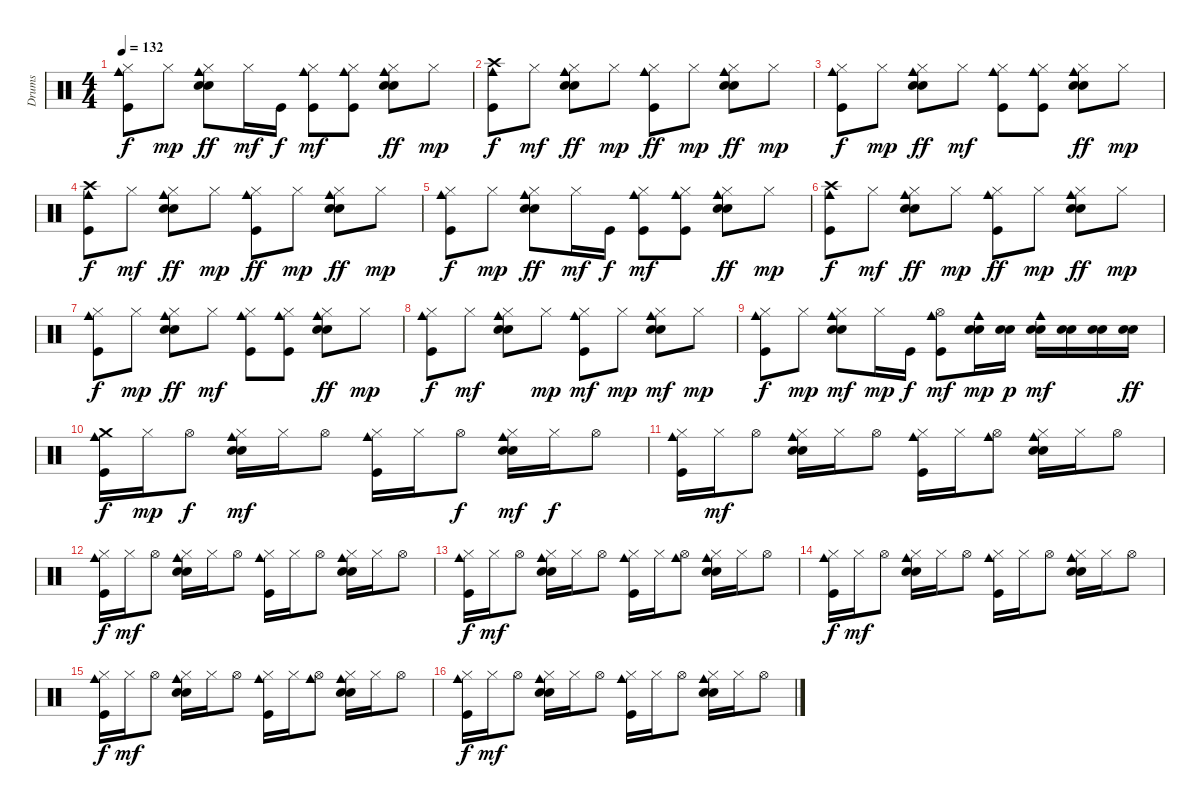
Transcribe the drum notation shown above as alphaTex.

\track ("Drums" "Drums") {instrument percussion}
\staff {score}
\articulation defaults
\ts (4 4)
\tempo 132
\clef neutral
\ks c
("Hi-Hat (closed)" "Kick (hit)" "Cowbell medium (hit)").8{dy f} "Hi-Hat (closed)".8{dy mp} ("Hi-Hat (closed)" "Electric Snare (hit)" "Snare (hit) 2" "Cowbell medium (hit)").8{dy ff} "Hi-Hat (closed)".16{dy mf} "Kick (hit)".16{dy f} ("Hi-Hat (closed)" "Kick (hit)" "Cowbell medium (hit)").8{dy mf} ("Hi-Hat (closed)" "Kick (hit)" "Cowbell medium (hit)").8 ("Hi-Hat (closed)" "Electric Snare (hit)" "Snare (hit) 2" "Cowbell medium (hit)").8{dy ff} "Hi-Hat (closed)".8{dy mp} |
("Kick (hit)" "Cowbell medium (hit)" "Crash high (hit)").8{dy f} "Hi-Hat (closed)".8{dy mf} ("Hi-Hat (closed)" "Electric Snare (hit)" "Snare (hit) 2" "Cowbell medium (hit)").8{dy ff} "Hi-Hat (closed)".8{dy mp} ("Hi-Hat (closed)" "Kick (hit)" "Cowbell medium (hit)").8{dy ff} "Hi-Hat (closed)".8{dy mp} ("Hi-Hat (closed)" "Electric Snare (hit)" "Snare (hit) 2" "Cowbell medium (hit)").8{dy ff} "Hi-Hat (closed)".8{dy mp} |
("Hi-Hat (closed)" "Kick (hit)" "Cowbell medium (hit)").8{dy f} "Hi-Hat (closed)".8{dy mp} ("Hi-Hat (closed)" "Electric Snare (hit)" "Snare (hit) 2" "Cowbell medium (hit)").8{dy ff} "Hi-Hat (closed)".8{dy mf} ("Hi-Hat (closed)" "Kick (hit)" "Cowbell medium (hit)").8 ("Hi-Hat (closed)" "Kick (hit)" "Cowbell medium (hit)").8 ("Hi-Hat (closed)" "Electric Snare (hit)" "Snare (hit) 2" "Cowbell medium (hit)").8{dy ff} "Hi-Hat (closed)".8{dy mp} |
("Kick (hit)" "Cowbell medium (hit)" "Crash high (hit)").8{dy f} "Hi-Hat (closed)".8{dy mf} ("Hi-Hat (closed)" "Electric Snare (hit)" "Snare (hit) 2" "Cowbell medium (hit)").8{dy ff} "Hi-Hat (closed)".8{dy mp} ("Hi-Hat (closed)" "Kick (hit)" "Cowbell medium (hit)").8{dy ff} "Hi-Hat (closed)".8{dy mp} ("Hi-Hat (closed)" "Electric Snare (hit)" "Snare (hit) 2" "Cowbell medium (hit)").8{dy ff} "Hi-Hat (closed)".8{dy mp} |
("Hi-Hat (closed)" "Kick (hit)" "Cowbell medium (hit)").8{dy f} "Hi-Hat (closed)".8{dy mp} ("Hi-Hat (closed)" "Electric Snare (hit)" "Snare (hit) 2" "Cowbell medium (hit)").8{dy ff} "Hi-Hat (closed)".16{dy mf} "Kick (hit)".16{dy f} ("Hi-Hat (closed)" "Kick (hit)" "Cowbell medium (hit)").8{dy mf} ("Hi-Hat (closed)" "Kick (hit)" "Cowbell medium (hit)").8 ("Hi-Hat (closed)" "Electric Snare (hit)" "Snare (hit) 2" "Cowbell medium (hit)").8{dy ff} "Hi-Hat (closed)".8{dy mp} |
("Kick (hit)" "Cowbell medium (hit)" "Crash high (hit)").8{dy f} "Hi-Hat (closed)".8{dy mf} ("Hi-Hat (closed)" "Electric Snare (hit)" "Snare (hit) 2" "Cowbell medium (hit)").8{dy ff} "Hi-Hat (closed)".8{dy mp} ("Hi-Hat (closed)" "Kick (hit)" "Cowbell medium (hit)").8{dy ff} "Hi-Hat (closed)".8{dy mp} ("Hi-Hat (closed)" "Electric Snare (hit)" "Snare (hit) 2" "Cowbell medium (hit)").8{dy ff} "Hi-Hat (closed)".8{dy mp} |
("Hi-Hat (closed)" "Kick (hit)" "Cowbell medium (hit)").8{dy f} "Hi-Hat (closed)".8{dy mp} ("Hi-Hat (closed)" "Electric Snare (hit)" "Snare (hit) 2" "Cowbell medium (hit)").8{dy ff} "Hi-Hat (closed)".8{dy mf} ("Hi-Hat (closed)" "Kick (hit)" "Cowbell medium (hit)").8 ("Hi-Hat (closed)" "Kick (hit)" "Cowbell medium (hit)").8 ("Hi-Hat (closed)" "Electric Snare (hit)" "Snare (hit) 2" "Cowbell medium (hit)").8{dy ff} "Hi-Hat (closed)".8{dy mp} |
("Hi-Hat (closed)" "Kick (hit)" "Cowbell medium (hit)").8{dy f} "Hi-Hat (closed)".8{dy mf} ("Hi-Hat (closed)" "Electric Snare (hit)" "Snare (hit) 2" "Cowbell medium (hit)").8 "Hi-Hat (closed)".8{dy mp} ("Hi-Hat (closed)" "Kick (hit)" "Cowbell medium (hit)").8{dy mf} "Hi-Hat (closed)".8{dy mp} ("Hi-Hat (closed)" "Electric Snare (hit)" "Snare (hit) 2" "Cowbell medium (hit)").8{dy mf} "Hi-Hat (closed)".8{dy mp} |
("Hi-Hat (closed)" "Kick (hit)" "Cowbell medium (hit)").8{dy f} "Hi-Hat (closed)".8{dy mp} ("Hi-Hat (closed)" "Electric Snare (hit)" "Snare (hit) 2" "Cowbell medium (hit)").8{dy mf} "Hi-Hat (closed)".16{dy mp} "Kick (hit)".16{dy f} ("Hi-Hat (open)" "Kick (hit)" "Cowbell medium (hit)").8{dy mf} ("Electric Snare (hit)" "Snare (hit) 2" "Cowbell medium (hit)").16{dy mp} ("Electric Snare (hit)" "Snare (hit) 2").16{dy p} ("Electric Snare (hit)" "Snare (hit) 2" "Cowbell medium (hit)").16{dy mf} ("Electric Snare (hit)" "Snare (hit) 2").16 ("Electric Snare (hit)" "Snare (hit) 2").16 ("Electric Snare (hit)" "Snare (hit) 2").16{dy ff} |
("Kick (hit)" "Cowbell medium (hit)" "Crash medium (hit)").16{dy f} "Hi-Hat (closed)".16{dy mp} "Hi-Hat (open)".8{dy f} ("Hi-Hat (closed)" "Electric Snare (hit)" "Snare (hit) 2" "Cowbell medium (hit)").16{dy mf} "Hi-Hat (closed)".16 "Hi-Hat (open)".8 ("Hi-Hat (closed)" "Kick (hit)" "Cowbell medium (hit)").16 "Hi-Hat (closed)".16 "Hi-Hat (open)".8{dy f} ("Hi-Hat (closed)" "Electric Snare (hit)" "Snare (hit) 2" "Cowbell medium (hit)").16{dy mf} "Hi-Hat (closed)".16{dy f} "Hi-Hat (open)".8 |
("Hi-Hat (closed)" "Kick (hit)" "Cowbell medium (hit)").16 "Hi-Hat (closed)".16{dy mf} "Hi-Hat (open)".8 ("Hi-Hat (closed)" "Electric Snare (hit)" "Snare (hit) 2" "Cowbell medium (hit)").16 "Hi-Hat (closed)".16 "Hi-Hat (open)".8 ("Hi-Hat (closed)" "Kick (hit)" "Cowbell medium (hit)").16 "Hi-Hat (closed)".16 ("Hi-Hat (open)" "Cowbell medium (hit)").8 ("Hi-Hat (closed)" "Electric Snare (hit)" "Snare (hit) 2" "Cowbell medium (hit)").16 "Hi-Hat (closed)".16 "Hi-Hat (open)".8 |
("Hi-Hat (closed)" "Kick (hit)" "Cowbell medium (hit)").16{dy f} "Hi-Hat (closed)".16{dy mf} "Hi-Hat (open)".8 ("Hi-Hat (closed)" "Electric Snare (hit)" "Snare (hit) 2" "Cowbell medium (hit)").16 "Hi-Hat (closed)".16 "Hi-Hat (open)".8 ("Hi-Hat (closed)" "Kick (hit)" "Cowbell medium (hit)").16 "Hi-Hat (closed)".16 "Hi-Hat (open)".8 ("Hi-Hat (closed)" "Electric Snare (hit)" "Snare (hit) 2" "Cowbell medium (hit)").16 "Hi-Hat (closed)".16 "Hi-Hat (open)".8 |
("Hi-Hat (closed)" "Kick (hit)" "Cowbell medium (hit)").16{dy f} "Hi-Hat (closed)".16{dy mf} "Hi-Hat (open)".8 ("Hi-Hat (closed)" "Electric Snare (hit)" "Snare (hit) 2" "Cowbell medium (hit)").16 "Hi-Hat (closed)".16 "Hi-Hat (open)".8 ("Hi-Hat (closed)" "Kick (hit)" "Cowbell medium (hit)").16 "Hi-Hat (closed)".16 ("Hi-Hat (open)" "Cowbell medium (hit)").8 ("Hi-Hat (closed)" "Electric Snare (hit)" "Snare (hit) 2" "Cowbell medium (hit)").16 "Hi-Hat (closed)".16 "Hi-Hat (open)".8 |
("Hi-Hat (closed)" "Kick (hit)" "Cowbell medium (hit)").16{dy f} "Hi-Hat (closed)".16{dy mf} "Hi-Hat (open)".8 ("Hi-Hat (closed)" "Electric Snare (hit)" "Snare (hit) 2" "Cowbell medium (hit)").16 "Hi-Hat (closed)".16 "Hi-Hat (open)".8 ("Hi-Hat (closed)" "Kick (hit)" "Cowbell medium (hit)").16 "Hi-Hat (closed)".16 "Hi-Hat (open)".8 ("Hi-Hat (closed)" "Electric Snare (hit)" "Snare (hit) 2" "Cowbell medium (hit)").16 "Hi-Hat (closed)".16 "Hi-Hat (open)".8 |
("Hi-Hat (closed)" "Kick (hit)" "Cowbell medium (hit)").16{dy f} "Hi-Hat (closed)".16{dy mf} "Hi-Hat (open)".8 ("Hi-Hat (closed)" "Electric Snare (hit)" "Snare (hit) 2" "Cowbell medium (hit)").16 "Hi-Hat (closed)".16 "Hi-Hat (open)".8 ("Hi-Hat (closed)" "Kick (hit)" "Cowbell medium (hit)").16 "Hi-Hat (closed)".16 ("Hi-Hat (open)" "Cowbell medium (hit)").8 ("Hi-Hat (closed)" "Electric Snare (hit)" "Snare (hit) 2" "Cowbell medium (hit)").16 "Hi-Hat (closed)".16 "Hi-Hat (open)".8 |
("Hi-Hat (closed)" "Kick (hit)" "Cowbell medium (hit)").16{dy f} "Hi-Hat (closed)".16{dy mf} "Hi-Hat (open)".8 ("Hi-Hat (closed)" "Electric Snare (hit)" "Snare (hit) 2" "Cowbell medium (hit)").16 "Hi-Hat (closed)".16 "Hi-Hat (open)".8 ("Hi-Hat (closed)" "Kick (hit)" "Cowbell medium (hit)").16 "Hi-Hat (closed)".16 "Hi-Hat (open)".8 ("Hi-Hat (closed)" "Electric Snare (hit)" "Snare (hit) 2" "Cowbell medium (hit)").16 "Hi-Hat (closed)".16 "Hi-Hat (open)".8
